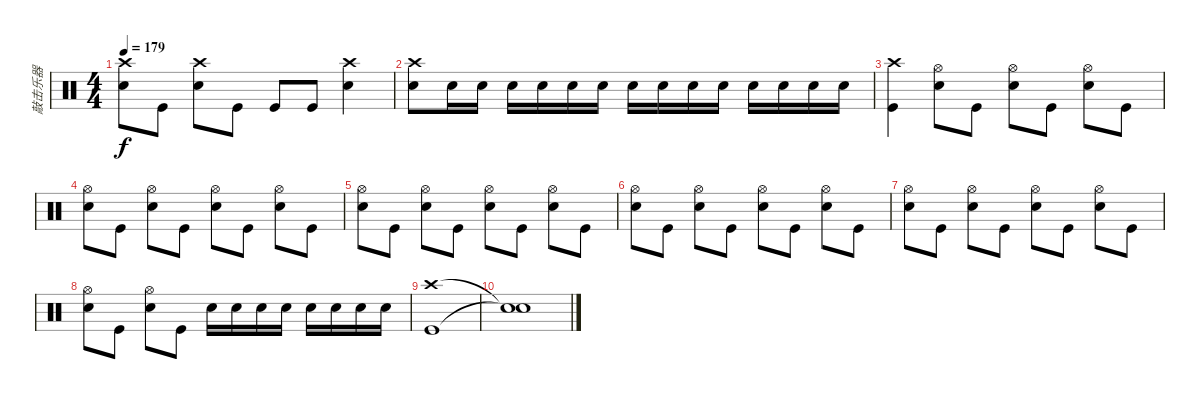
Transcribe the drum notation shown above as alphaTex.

\track ("敲击乐器" "敲击乐器") {instrument percussion}
\staff {score}
\articulation defaults
\ts (4 4)
\tempo 179
\clef neutral
\ks c
("Crash high (hit)" "Electric Snare (hit)").8{dy f} "Kick (hit)".8 ("Crash high (hit)" "Electric Snare (hit)").8 "Kick (hit)".8 "Kick (hit)".8 "Kick (hit)".8 ("Crash high (hit)" "Electric Snare (hit)").4 |
("Crash high (hit)" "Electric Snare (hit)").8 "Electric Snare (hit)".16 "Electric Snare (hit)".16 "Electric Snare (hit)".16 "Electric Snare (hit)".16 "Electric Snare (hit)".16 "Electric Snare (hit)".16 "Electric Snare (hit)".16 "Electric Snare (hit)".16 "Electric Snare (hit)".16 "Electric Snare (hit)".16 "Electric Snare (hit)".16 "Electric Snare (hit)".16 "Electric Snare (hit)".16 "Electric Snare (hit)".16 |
("Crash high (hit)" "Kick (hit)").4 ("Hi-Hat (open)" "Electric Snare (hit)").8 "Kick (hit)".8 ("Hi-Hat (open)" "Electric Snare (hit)").8 "Kick (hit)".8 ("Hi-Hat (open)" "Electric Snare (hit)").8 "Kick (hit)".8 |
("Hi-Hat (open)" "Electric Snare (hit)").8 "Kick (hit)".8 ("Hi-Hat (open)" "Electric Snare (hit)").8 "Kick (hit)".8 ("Hi-Hat (open)" "Electric Snare (hit)").8 "Kick (hit)".8 ("Hi-Hat (open)" "Electric Snare (hit)").8 "Kick (hit)".8 |
("Hi-Hat (open)" "Electric Snare (hit)").8 "Kick (hit)".8 ("Hi-Hat (open)" "Electric Snare (hit)").8 "Kick (hit)".8 ("Hi-Hat (open)" "Electric Snare (hit)").8 "Kick (hit)".8 ("Hi-Hat (open)" "Electric Snare (hit)").8 "Kick (hit)".8 |
("Hi-Hat (open)" "Electric Snare (hit)").8 "Kick (hit)".8 ("Hi-Hat (open)" "Electric Snare (hit)").8 "Kick (hit)".8 ("Hi-Hat (open)" "Electric Snare (hit)").8 "Kick (hit)".8 ("Hi-Hat (open)" "Electric Snare (hit)").8 "Kick (hit)".8 |
("Hi-Hat (open)" "Electric Snare (hit)").8 "Kick (hit)".8 ("Hi-Hat (open)" "Electric Snare (hit)").8 "Kick (hit)".8 ("Hi-Hat (open)" "Electric Snare (hit)").8 "Kick (hit)".8 ("Hi-Hat (open)" "Electric Snare (hit)").8 "Kick (hit)".8 |
("Hi-Hat (open)" "Electric Snare (hit)").8 "Kick (hit)".8 ("Hi-Hat (open)" "Electric Snare (hit)").8 "Kick (hit)".8 "Electric Snare (hit)".16 "Electric Snare (hit)".16 "Electric Snare (hit)".16 "Electric Snare (hit)".16 "Electric Snare (hit)".16 "Electric Snare (hit)".16 "Electric Snare (hit)".16 "Electric Snare (hit)".16 |
("Crash high (hit)" "Kick (hit)").1 |
("Snare (hit)"{t} "Snare (hit)"{t}).1
